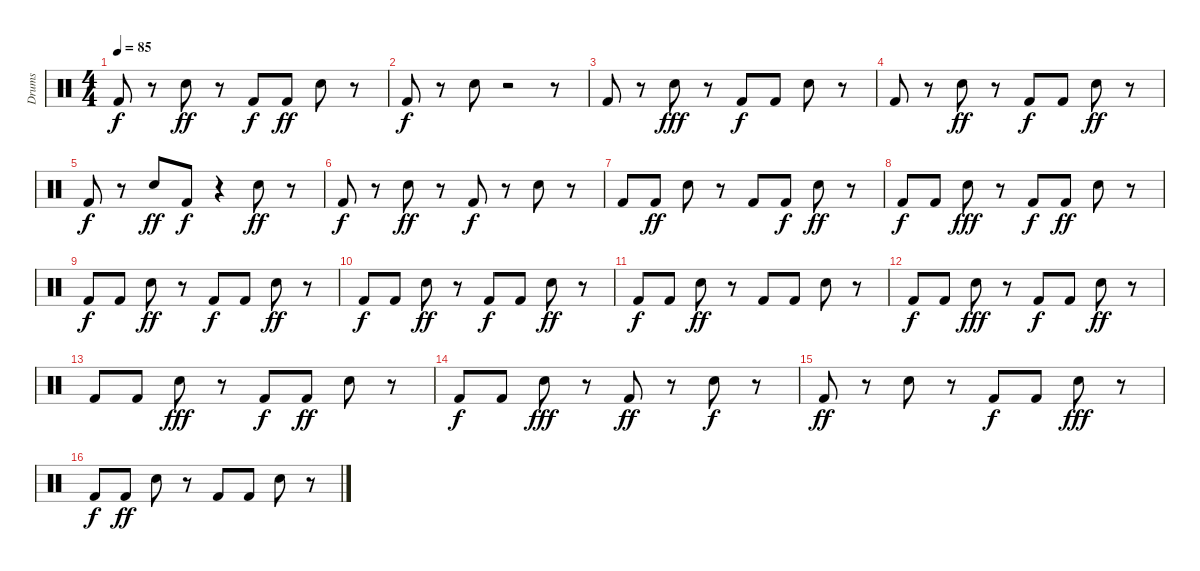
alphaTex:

\track ("Drums               " "Drums     ") {instrument percussion}
\staff {score}
\articulation defaults
\ts (4 4)
\tempo 85
\clef neutral
\ks c "Kick (hit) 2".8{dy f}
r.8 "Electric Snare (hit)".8{dy ff} r.8 "Kick (hit) 2".8{dy f} "Kick (hit) 2".8{dy ff} "Electric Snare (hit)".8 r.8 |
"Kick (hit) 2".8{dy f} r.8 "Electric Snare (hit)".8 r.2 r.8 |
"Kick (hit) 2".8 r.8 "Electric Snare (hit)".8{dy fff} r.8 "Kick (hit) 2".8{dy f} "Kick (hit) 2".8 "Electric Snare (hit)".8 r.8 |
"Kick (hit) 2".8 r.8 "Electric Snare (hit)".8{dy ff} r.8 "Kick (hit) 2".8{dy f} "Kick (hit) 2".8 "Electric Snare (hit)".8{dy ff} r.8 |
"Kick (hit) 2".8{dy f} r.8 "Electric Snare (hit)".8{dy ff} "Kick (hit) 2".8{dy f} r.4 "Electric Snare (hit)".8{dy ff} r.8 |
"Kick (hit) 2".8{dy f} r.8 "Electric Snare (hit)".8{dy ff} r.8 "Kick (hit) 2".8{dy f} r.8 "Electric Snare (hit)".8 r.8 |
"Kick (hit) 2".8 "Kick (hit) 2".8{dy ff} "Electric Snare (hit)".8 r.8 "Kick (hit) 2".8 "Kick (hit) 2".8{dy f} "Electric Snare (hit)".8{dy ff} r.8 |
"Kick (hit) 2".8{dy f} "Kick (hit) 2".8 "Electric Snare (hit)".8{dy fff} r.8 "Kick (hit) 2".8{dy f} "Kick (hit) 2".8{dy ff} "Electric Snare (hit)".8 r.8 |
"Kick (hit) 2".8{dy f} "Kick (hit) 2".8 "Electric Snare (hit)".8{dy ff} r.8 "Kick (hit) 2".8{dy f} "Kick (hit) 2".8 "Electric Snare (hit)".8{dy ff} r.8 |
"Kick (hit) 2".8{dy f} "Kick (hit) 2".8 "Electric Snare (hit)".8{dy ff} r.8 "Kick (hit) 2".8{dy f} "Kick (hit) 2".8 "Electric Snare (hit)".8{dy ff} r.8 |
"Kick (hit) 2".8{dy f} "Kick (hit) 2".8 "Electric Snare (hit)".8{dy ff} r.8 "Kick (hit) 2".8 "Kick (hit) 2".8 "Electric Snare (hit)".8 r.8 |
"Kick (hit) 2".8{dy f} "Kick (hit) 2".8 "Electric Snare (hit)".8{dy fff} r.8 "Kick (hit) 2".8{dy f} "Kick (hit) 2".8 "Electric Snare (hit)".8{dy ff} r.8 |
"Kick (hit) 2".8 "Kick (hit) 2".8 "Electric Snare (hit)".8{dy fff} r.8 "Kick (hit) 2".8{dy f} "Kick (hit) 2".8{dy ff} "Electric Snare (hit)".8 r.8 |
"Kick (hit) 2".8{dy f} "Kick (hit) 2".8 "Electric Snare (hit)".8{dy fff} r.8 "Kick (hit) 2".8{dy ff} r.8 "Electric Snare (hit)".8{dy f} r.8 |
"Kick (hit) 2".8{dy ff} r.8 "Electric Snare (hit)".8 r.8 "Kick (hit) 2".8{dy f} "Kick (hit) 2".8 "Electric Snare (hit)".8{dy fff} r.8 |
"Kick (hit) 2".8{dy f} "Kick (hit) 2".8{dy ff} "Electric Snare (hit)".8 r.8 "Kick (hit) 2".8 "Kick (hit) 2".8 "Electric Snare (hit)".8 r.8
